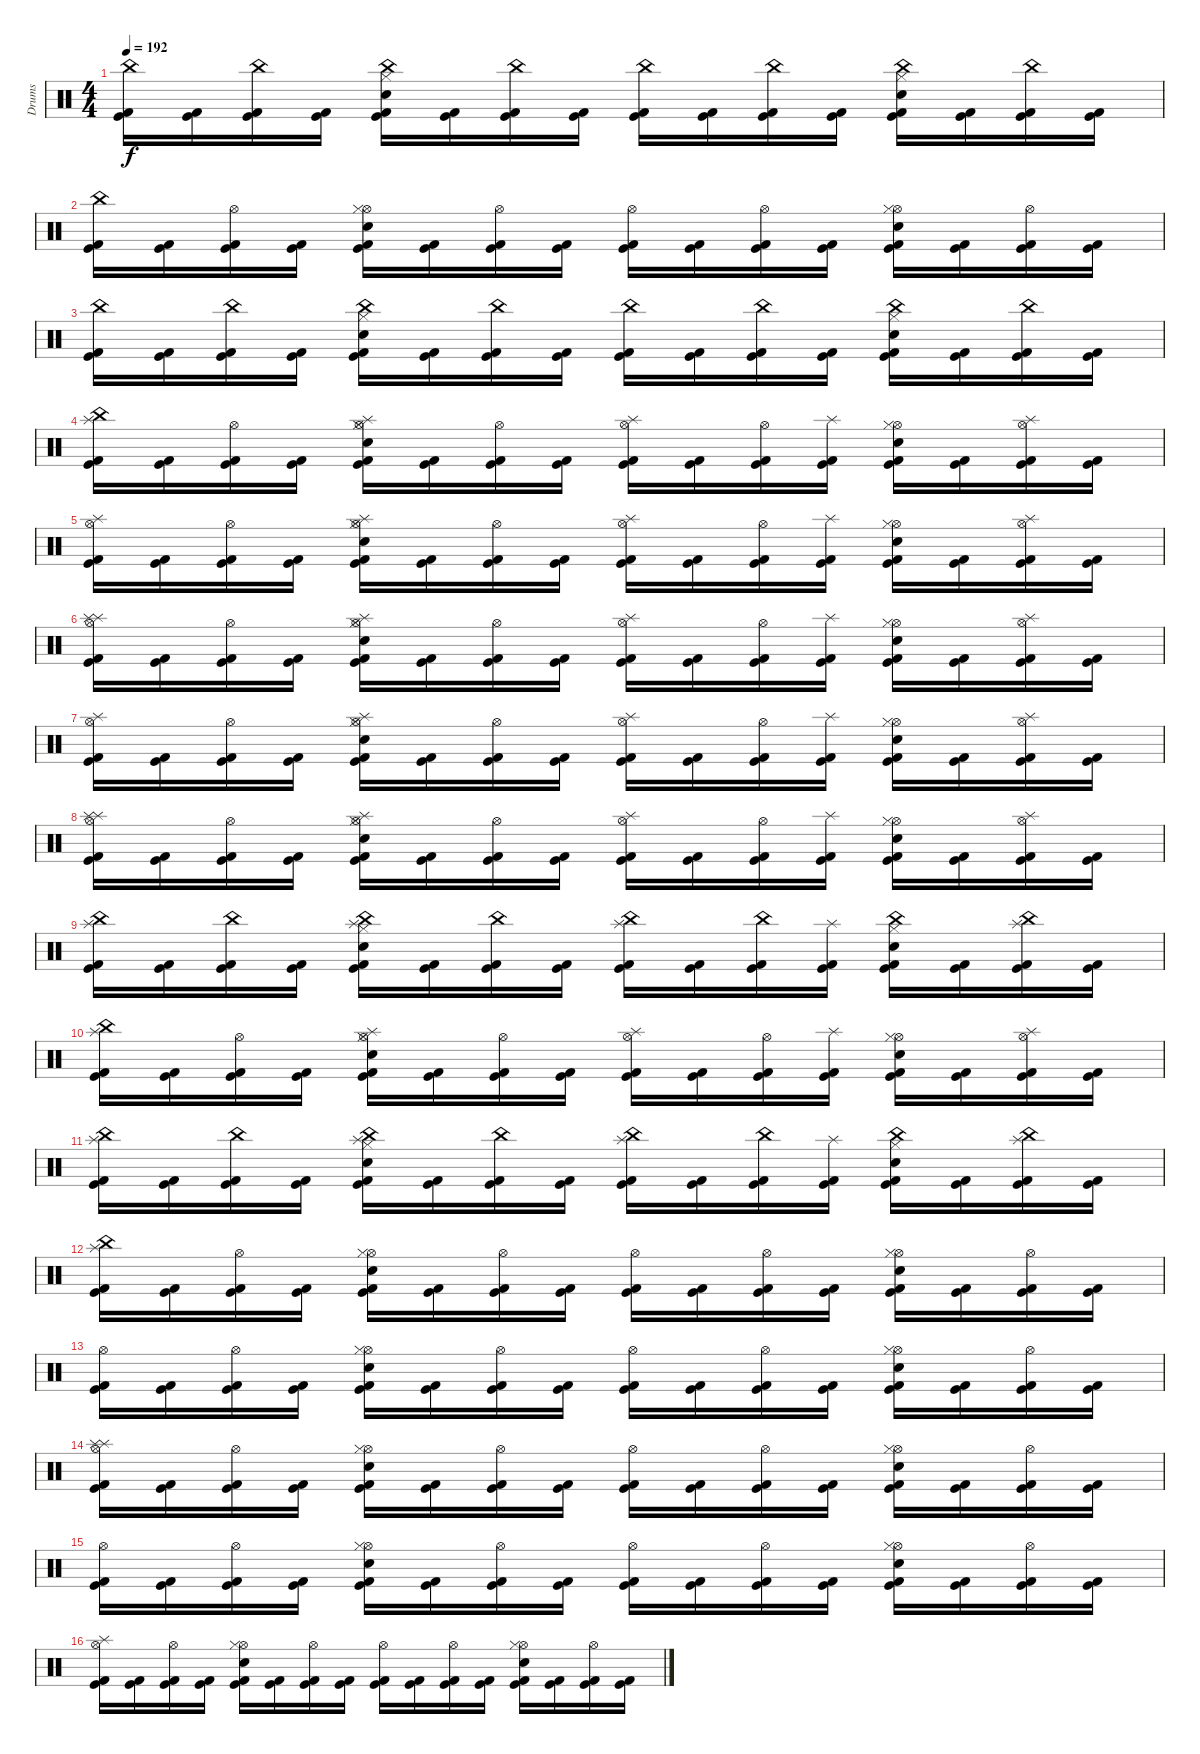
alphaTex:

\track ("Drums" "Drums") {instrument percussion}
\staff {score}
\articulation defaults
\ts (4 4)
\tempo 192
\clef neutral
\ks c
("China (hit)" "Kick (hit)" "Kick (hit) 2").16{dy f} ("Kick (hit)" "Kick (hit) 2").16 ("China (hit)" "Kick (hit)" "Kick (hit) 2").16 ("Kick (hit)" "Kick (hit) 2").16 ("Hi-Hat (closed)" "China (hit)" "Electric Snare (hit)" "Kick (hit)" "Kick (hit) 2").16 ("Kick (hit)" "Kick (hit) 2").16 ("China (hit)" "Kick (hit)" "Kick (hit) 2").16 ("Kick (hit)" "Kick (hit) 2").16 ("China (hit)" "Kick (hit)" "Kick (hit) 2").16 ("Kick (hit)" "Kick (hit) 2").16 ("China (hit)" "Kick (hit)" "Kick (hit) 2").16 ("Kick (hit)" "Kick (hit) 2").16 ("Hi-Hat (closed)" "China (hit)" "Electric Snare (hit)" "Kick (hit)" "Kick (hit) 2").16 ("Kick (hit)" "Kick (hit) 2").16 ("China (hit)" "Kick (hit)" "Kick (hit) 2").16 ("Kick (hit)" "Kick (hit) 2").16 |
("China (hit)" "Kick (hit)" "Kick (hit) 2").16 ("Kick (hit)" "Kick (hit) 2").16 ("Hi-Hat (open)" "Kick (hit)" "Kick (hit) 2").16 ("Kick (hit)" "Kick (hit) 2").16 ("Hi-Hat (open)" "Hi-Hat (closed)" "Electric Snare (hit)" "Kick (hit)" "Kick (hit) 2").16 ("Kick (hit)" "Kick (hit) 2").16 ("Hi-Hat (open)" "Kick (hit)" "Kick (hit) 2").16 ("Kick (hit)" "Kick (hit) 2").16 ("Hi-Hat (open)" "Kick (hit)" "Kick (hit) 2").16 ("Kick (hit)" "Kick (hit) 2").16 ("Hi-Hat (open)" "Kick (hit)" "Kick (hit) 2").16 ("Kick (hit)" "Kick (hit) 2").16 ("Hi-Hat (open)" "Hi-Hat (closed)" "Electric Snare (hit)" "Kick (hit)" "Kick (hit) 2").16 ("Kick (hit)" "Kick (hit) 2").16 ("Hi-Hat (open)" "Kick (hit)" "Kick (hit) 2").16 ("Kick (hit)" "Kick (hit) 2").16 |
("China (hit)" "Kick (hit)" "Kick (hit) 2").16 ("Kick (hit)" "Kick (hit) 2").16 ("China (hit)" "Kick (hit)" "Kick (hit) 2").16 ("Kick (hit)" "Kick (hit) 2").16 ("Hi-Hat (closed)" "China (hit)" "Electric Snare (hit)" "Kick (hit)" "Kick (hit) 2").16 ("Kick (hit)" "Kick (hit) 2").16 ("China (hit)" "Kick (hit)" "Kick (hit) 2").16 ("Kick (hit)" "Kick (hit) 2").16 ("China (hit)" "Kick (hit)" "Kick (hit) 2").16 ("Kick (hit)" "Kick (hit) 2").16 ("China (hit)" "Kick (hit)" "Kick (hit) 2").16 ("Kick (hit)" "Kick (hit) 2").16 ("Hi-Hat (closed)" "China (hit)" "Electric Snare (hit)" "Kick (hit)" "Kick (hit) 2").16 ("Kick (hit)" "Kick (hit) 2").16 ("China (hit)" "Kick (hit)" "Kick (hit) 2").16 ("Kick (hit)" "Kick (hit) 2").16 |
("Splash (hit)" "China (hit)" "Kick (hit)" "Kick (hit) 2").16{volume 16 balance 8} ("Kick (hit)" "Kick (hit) 2").16 ("Hi-Hat (open)" "Kick (hit)" "Kick (hit) 2").16 ("Kick (hit)" "Kick (hit) 2").16 ("Splash (hit)" "Hi-Hat (open)" "Hi-Hat (closed)" "Electric Snare (hit)" "Kick (hit)" "Kick (hit) 2").16 ("Kick (hit)" "Kick (hit) 2").16 ("Hi-Hat (open)" "Kick (hit)" "Kick (hit) 2").16 ("Kick (hit)" "Kick (hit) 2").16 ("Splash (hit)" "Hi-Hat (open)" "Kick (hit)" "Kick (hit) 2").16 ("Kick (hit)" "Kick (hit) 2").16 ("Hi-Hat (open)" "Kick (hit)" "Kick (hit) 2").16 ("Splash (hit)" "Kick (hit)" "Kick (hit) 2").16 ("Hi-Hat (open)" "Hi-Hat (closed)" "Electric Snare (hit)" "Kick (hit)" "Kick (hit) 2").16 ("Kick (hit)" "Kick (hit) 2").16 ("Splash (hit)" "Hi-Hat (open)" "Kick (hit)" "Kick (hit) 2").16 ("Kick (hit)" "Kick (hit) 2").16 |
("Splash (hit)" "Hi-Hat (open)" "Kick (hit)" "Kick (hit) 2").16 ("Kick (hit)" "Kick (hit) 2").16 ("Hi-Hat (open)" "Kick (hit)" "Kick (hit) 2").16 ("Kick (hit)" "Kick (hit) 2").16 ("Splash (hit)" "Hi-Hat (open)" "Hi-Hat (closed)" "Electric Snare (hit)" "Kick (hit)" "Kick (hit) 2").16 ("Kick (hit)" "Kick (hit) 2").16 ("Hi-Hat (open)" "Kick (hit)" "Kick (hit) 2").16 ("Kick (hit)" "Kick (hit) 2").16 ("Splash (hit)" "Hi-Hat (open)" "Kick (hit)" "Kick (hit) 2").16 ("Kick (hit)" "Kick (hit) 2").16 ("Hi-Hat (open)" "Kick (hit)" "Kick (hit) 2").16 ("Splash (hit)" "Kick (hit)" "Kick (hit) 2").16 ("Hi-Hat (open)" "Hi-Hat (closed)" "Electric Snare (hit)" "Kick (hit)" "Kick (hit) 2").16 ("Kick (hit)" "Kick (hit) 2").16 ("Splash (hit)" "Hi-Hat (open)" "Kick (hit)" "Kick (hit) 2").16 ("Kick (hit)" "Kick (hit) 2").16 |
("Splash (hit)" "Splash (hit)" "Hi-Hat (open)" "Kick (hit)" "Kick (hit) 2").16 ("Kick (hit)" "Kick (hit) 2").16 ("Hi-Hat (open)" "Kick (hit)" "Kick (hit) 2").16 ("Kick (hit)" "Kick (hit) 2").16 ("Splash (hit)" "Hi-Hat (open)" "Hi-Hat (closed)" "Electric Snare (hit)" "Kick (hit)" "Kick (hit) 2").16 ("Kick (hit)" "Kick (hit) 2").16 ("Hi-Hat (open)" "Kick (hit)" "Kick (hit) 2").16 ("Kick (hit)" "Kick (hit) 2").16 ("Splash (hit)" "Hi-Hat (open)" "Kick (hit)" "Kick (hit) 2").16 ("Kick (hit)" "Kick (hit) 2").16 ("Hi-Hat (open)" "Kick (hit)" "Kick (hit) 2").16 ("Splash (hit)" "Kick (hit)" "Kick (hit) 2").16 ("Hi-Hat (open)" "Hi-Hat (closed)" "Electric Snare (hit)" "Kick (hit)" "Kick (hit) 2").16 ("Kick (hit)" "Kick (hit) 2").16 ("Splash (hit)" "Hi-Hat (open)" "Kick (hit)" "Kick (hit) 2").16 ("Kick (hit)" "Kick (hit) 2").16 |
("Splash (hit)" "Hi-Hat (open)" "Kick (hit)" "Kick (hit) 2").16 ("Kick (hit)" "Kick (hit) 2").16 ("Hi-Hat (open)" "Kick (hit)" "Kick (hit) 2").16 ("Kick (hit)" "Kick (hit) 2").16 ("Splash (hit)" "Hi-Hat (open)" "Hi-Hat (closed)" "Electric Snare (hit)" "Kick (hit)" "Kick (hit) 2").16 ("Kick (hit)" "Kick (hit) 2").16 ("Hi-Hat (open)" "Kick (hit)" "Kick (hit) 2").16 ("Kick (hit)" "Kick (hit) 2").16 ("Splash (hit)" "Hi-Hat (open)" "Kick (hit)" "Kick (hit) 2").16 ("Kick (hit)" "Kick (hit) 2").16 ("Hi-Hat (open)" "Kick (hit)" "Kick (hit) 2").16 ("Splash (hit)" "Kick (hit)" "Kick (hit) 2").16 ("Hi-Hat (open)" "Hi-Hat (closed)" "Electric Snare (hit)" "Kick (hit)" "Kick (hit) 2").16 ("Kick (hit)" "Kick (hit) 2").16 ("Splash (hit)" "Hi-Hat (open)" "Kick (hit)" "Kick (hit) 2").16 ("Kick (hit)" "Kick (hit) 2").16 |
("Splash (hit)" "Hi-Hat (open)" "Splash (hit)" "Kick (hit)" "Kick (hit) 2").16 ("Kick (hit)" "Kick (hit) 2").16 ("Hi-Hat (open)" "Kick (hit)" "Kick (hit) 2").16 ("Kick (hit)" "Kick (hit) 2").16 ("Splash (hit)" "Hi-Hat (open)" "Hi-Hat (closed)" "Electric Snare (hit)" "Kick (hit)" "Kick (hit) 2").16 ("Kick (hit)" "Kick (hit) 2").16 ("Hi-Hat (open)" "Kick (hit)" "Kick (hit) 2").16 ("Kick (hit)" "Kick (hit) 2").16 ("Splash (hit)" "Hi-Hat (open)" "Kick (hit)" "Kick (hit) 2").16 ("Kick (hit)" "Kick (hit) 2").16 ("Hi-Hat (open)" "Kick (hit)" "Kick (hit) 2").16 ("Splash (hit)" "Kick (hit)" "Kick (hit) 2").16 ("Hi-Hat (open)" "Hi-Hat (closed)" "Electric Snare (hit)" "Kick (hit)" "Kick (hit) 2").16 ("Kick (hit)" "Kick (hit) 2").16 ("Splash (hit)" "Hi-Hat (open)" "Kick (hit)" "Kick (hit) 2").16 ("Kick (hit)" "Kick (hit) 2").16 |
("Splash (hit)" "China (hit)" "Kick (hit)" "Kick (hit) 2").16 ("Kick (hit)" "Kick (hit) 2").16 ("China (hit)" "Kick (hit)" "Kick (hit) 2").16 ("Kick (hit)" "Kick (hit) 2").16 ("Splash (hit)" "Hi-Hat (closed)" "China (hit)" "Electric Snare (hit)" "Kick (hit)" "Kick (hit) 2").16 ("Kick (hit)" "Kick (hit) 2").16 ("China (hit)" "Kick (hit)" "Kick (hit) 2").16 ("Kick (hit)" "Kick (hit) 2").16 ("Splash (hit)" "China (hit)" "Kick (hit)" "Kick (hit) 2").16 ("Kick (hit)" "Kick (hit) 2").16 ("China (hit)" "Kick (hit)" "Kick (hit) 2").16 ("Splash (hit)" "Kick (hit)" "Kick (hit) 2").16 ("Hi-Hat (closed)" "China (hit)" "Electric Snare (hit)" "Kick (hit)" "Kick (hit) 2").16 ("Kick (hit)" "Kick (hit) 2").16 ("Splash (hit)" "China (hit)" "Kick (hit)" "Kick (hit) 2").16 ("Kick (hit)" "Kick (hit) 2").16 |
("Splash (hit)" "China (hit)" "Kick (hit)" "Kick (hit) 2").16 ("Kick (hit)" "Kick (hit) 2").16 ("Hi-Hat (open)" "Kick (hit)" "Kick (hit) 2").16 ("Kick (hit)" "Kick (hit) 2").16 ("Splash (hit)" "Hi-Hat (open)" "Hi-Hat (closed)" "Electric Snare (hit)" "Kick (hit)" "Kick (hit) 2").16 ("Kick (hit)" "Kick (hit) 2").16 ("Hi-Hat (open)" "Kick (hit)" "Kick (hit) 2").16 ("Kick (hit)" "Kick (hit) 2").16 ("Splash (hit)" "Hi-Hat (open)" "Kick (hit)" "Kick (hit) 2").16 ("Kick (hit)" "Kick (hit) 2").16 ("Hi-Hat (open)" "Kick (hit)" "Kick (hit) 2").16 ("Splash (hit)" "Kick (hit)" "Kick (hit) 2").16 ("Hi-Hat (open)" "Hi-Hat (closed)" "Electric Snare (hit)" "Kick (hit)" "Kick (hit) 2").16 ("Kick (hit)" "Kick (hit) 2").16 ("Splash (hit)" "Hi-Hat (open)" "Kick (hit)" "Kick (hit) 2").16 ("Kick (hit)" "Kick (hit) 2").16 |
("Splash (hit)" "China (hit)" "Kick (hit)" "Kick (hit) 2").16 ("Kick (hit)" "Kick (hit) 2").16 ("China (hit)" "Kick (hit)" "Kick (hit) 2").16 ("Kick (hit)" "Kick (hit) 2").16 ("Splash (hit)" "Hi-Hat (closed)" "China (hit)" "Electric Snare (hit)" "Kick (hit)" "Kick (hit) 2").16 ("Kick (hit)" "Kick (hit) 2").16 ("China (hit)" "Kick (hit)" "Kick (hit) 2").16 ("Kick (hit)" "Kick (hit) 2").16 ("Splash (hit)" "China (hit)" "Kick (hit)" "Kick (hit) 2").16 ("Kick (hit)" "Kick (hit) 2").16 ("China (hit)" "Kick (hit)" "Kick (hit) 2").16 ("Splash (hit)" "Kick (hit)" "Kick (hit) 2").16 ("Hi-Hat (closed)" "China (hit)" "Electric Snare (hit)" "Kick (hit)" "Kick (hit) 2").16 ("Kick (hit)" "Kick (hit) 2").16 ("Splash (hit)" "China (hit)" "Kick (hit)" "Kick (hit) 2").16 ("Kick (hit)" "Kick (hit) 2").16 |
("Splash (hit)" "China (hit)" "Kick (hit)" "Kick (hit) 2").16{volume 16 balance 8} ("Kick (hit)" "Kick (hit) 2").16 ("Hi-Hat (open)" "Kick (hit)" "Kick (hit) 2").16 ("Kick (hit)" "Kick (hit) 2").16 ("Hi-Hat (open)" "Hi-Hat (closed)" "Electric Snare (hit)" "Kick (hit)" "Kick (hit) 2").16 ("Kick (hit)" "Kick (hit) 2").16 ("Hi-Hat (open)" "Kick (hit)" "Kick (hit) 2").16 ("Kick (hit)" "Kick (hit) 2").16 ("Hi-Hat (open)" "Kick (hit)" "Kick (hit) 2").16 ("Kick (hit)" "Kick (hit) 2").16 ("Hi-Hat (open)" "Kick (hit)" "Kick (hit) 2").16 ("Kick (hit)" "Kick (hit) 2").16 ("Hi-Hat (open)" "Hi-Hat (closed)" "Electric Snare (hit)" "Kick (hit)" "Kick (hit) 2").16 ("Kick (hit)" "Kick (hit) 2").16 ("Hi-Hat (open)" "Kick (hit)" "Kick (hit) 2").16 ("Kick (hit)" "Kick (hit) 2").16 |
("Hi-Hat (open)" "Kick (hit)" "Kick (hit) 2").16 ("Kick (hit)" "Kick (hit) 2").16 ("Hi-Hat (open)" "Kick (hit)" "Kick (hit) 2").16 ("Kick (hit)" "Kick (hit) 2").16 ("Hi-Hat (open)" "Hi-Hat (closed)" "Electric Snare (hit)" "Kick (hit)" "Kick (hit) 2").16 ("Kick (hit)" "Kick (hit) 2").16 ("Hi-Hat (open)" "Kick (hit)" "Kick (hit) 2").16 ("Kick (hit)" "Kick (hit) 2").16 ("Hi-Hat (open)" "Kick (hit)" "Kick (hit) 2").16 ("Kick (hit)" "Kick (hit) 2").16 ("Hi-Hat (open)" "Kick (hit)" "Kick (hit) 2").16 ("Kick (hit)" "Kick (hit) 2").16 ("Hi-Hat (open)" "Hi-Hat (closed)" "Electric Snare (hit)" "Kick (hit)" "Kick (hit) 2").16 ("Kick (hit)" "Kick (hit) 2").16 ("Hi-Hat (open)" "Kick (hit)" "Kick (hit) 2").16 ("Kick (hit)" "Kick (hit) 2").16 |
("Splash (hit)" "Splash (hit)" "Hi-Hat (open)" "Kick (hit)" "Kick (hit) 2").16 ("Kick (hit)" "Kick (hit) 2").16 ("Hi-Hat (open)" "Kick (hit)" "Kick (hit) 2").16 ("Kick (hit)" "Kick (hit) 2").16 ("Hi-Hat (open)" "Hi-Hat (closed)" "Electric Snare (hit)" "Kick (hit)" "Kick (hit) 2").16 ("Kick (hit)" "Kick (hit) 2").16 ("Hi-Hat (open)" "Kick (hit)" "Kick (hit) 2").16 ("Kick (hit)" "Kick (hit) 2").16 ("Hi-Hat (open)" "Kick (hit)" "Kick (hit) 2").16 ("Kick (hit)" "Kick (hit) 2").16 ("Hi-Hat (open)" "Kick (hit)" "Kick (hit) 2").16 ("Kick (hit)" "Kick (hit) 2").16 ("Hi-Hat (open)" "Hi-Hat (closed)" "Electric Snare (hit)" "Kick (hit)" "Kick (hit) 2").16 ("Kick (hit)" "Kick (hit) 2").16 ("Hi-Hat (open)" "Kick (hit)" "Kick (hit) 2").16 ("Kick (hit)" "Kick (hit) 2").16 |
("Hi-Hat (open)" "Kick (hit)" "Kick (hit) 2").16 ("Kick (hit)" "Kick (hit) 2").16 ("Hi-Hat (open)" "Kick (hit)" "Kick (hit) 2").16 ("Kick (hit)" "Kick (hit) 2").16 ("Hi-Hat (open)" "Hi-Hat (closed)" "Electric Snare (hit)" "Kick (hit)" "Kick (hit) 2").16 ("Kick (hit)" "Kick (hit) 2").16 ("Hi-Hat (open)" "Kick (hit)" "Kick (hit) 2").16 ("Kick (hit)" "Kick (hit) 2").16 ("Hi-Hat (open)" "Kick (hit)" "Kick (hit) 2").16 ("Kick (hit)" "Kick (hit) 2").16 ("Hi-Hat (open)" "Kick (hit)" "Kick (hit) 2").16 ("Kick (hit)" "Kick (hit) 2").16 ("Hi-Hat (open)" "Hi-Hat (closed)" "Electric Snare (hit)" "Kick (hit)" "Kick (hit) 2").16 ("Kick (hit)" "Kick (hit) 2").16 ("Hi-Hat (open)" "Kick (hit)" "Kick (hit) 2").16 ("Kick (hit)" "Kick (hit) 2").16 |
("Hi-Hat (open)" "Splash (hit)" "Kick (hit)" "Kick (hit) 2").16 ("Kick (hit)" "Kick (hit) 2").16 ("Hi-Hat (open)" "Kick (hit)" "Kick (hit) 2").16 ("Kick (hit)" "Kick (hit) 2").16 ("Hi-Hat (open)" "Hi-Hat (closed)" "Electric Snare (hit)" "Kick (hit)" "Kick (hit) 2").16 ("Kick (hit)" "Kick (hit) 2").16 ("Hi-Hat (open)" "Kick (hit)" "Kick (hit) 2").16 ("Kick (hit)" "Kick (hit) 2").16 ("Hi-Hat (open)" "Kick (hit)" "Kick (hit) 2").16 ("Kick (hit)" "Kick (hit) 2").16 ("Hi-Hat (open)" "Kick (hit)" "Kick (hit) 2").16 ("Kick (hit)" "Kick (hit) 2").16 ("Hi-Hat (open)" "Hi-Hat (closed)" "Electric Snare (hit)" "Kick (hit)" "Kick (hit) 2").16 ("Kick (hit)" "Kick (hit) 2").16 ("Hi-Hat (open)" "Kick (hit)" "Kick (hit) 2").16 ("Kick (hit)" "Kick (hit) 2").16
